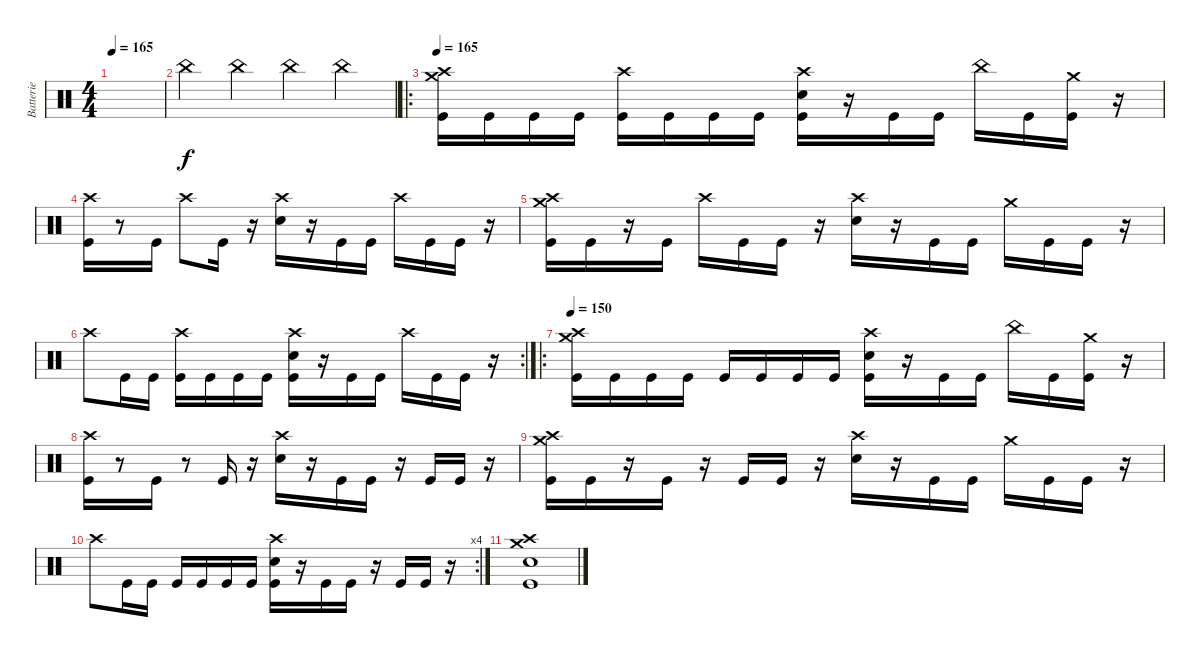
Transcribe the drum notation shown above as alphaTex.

\track ("Batterie" "Batterie") {instrument percussion}
\staff {score}
\articulation defaults
\ts (4 4)
\tempo 165
\clef neutral
\ks c
|
"China (hit)".4 "China (hit)".4 "China (hit)".4 "China (hit)".4 |
\ro
\tempo 165
("Crash high (hit)" "Crash medium (hit)" "Kick (hit)").16 "Kick (hit)".16 "Kick (hit)".16 "Kick (hit)".16 ("Crash high (hit)" "Kick (hit)").16 "Kick (hit)".16 "Kick (hit)".16 "Kick (hit)".16 ("Crash high (hit)" "Electric Snare (hit)" "Kick (hit)").16 r.16 "Kick (hit)".16 "Kick (hit)".16 "China (hit)".16 "Kick (hit)".16 ("Crash medium (hit)" "Kick (hit)").16 r.16 |
("Crash high (hit)" "Kick (hit)").16 r.8 "Kick (hit)".16 "Crash high (hit)".8 "Kick (hit)".16 r.16 ("Crash high (hit)" "Electric Snare (hit)").16 r.16 "Kick (hit)".16 "Kick (hit)".16 "Crash high (hit)".16 "Kick (hit)".16 "Kick (hit)".16 r.16 |
("Crash high (hit)" "Crash medium (hit)" "Kick (hit)").16 "Kick (hit)".16 r.16 "Kick (hit)".16 "Crash high (hit)".16 "Kick (hit)".16 "Kick (hit)".16 r.16 ("Crash high (hit)" "Electric Snare (hit)").16 r.16 "Kick (hit)".16 "Kick (hit)".16 "Crash medium (hit)".16 "Kick (hit)".16 "Kick (hit)".16 r.16 |
\rc 2 "Crash high (hit)".8 "Kick (hit)".16 "Kick (hit)".16
("Crash high (hit)" "Kick (hit)").16 "Kick (hit)".16 "Kick (hit)".16 "Kick (hit)".16 ("Crash high (hit)" "Electric Snare (hit)" "Kick (hit)").16 r.16 "Kick (hit)".16 "Kick (hit)".16 "Crash high (hit)".16 "Kick (hit)".16 "Kick (hit)".16 r.16 |
\ro
\tempo 150
("Crash high (hit)" "Crash medium (hit)" "Kick (hit)").16 "Kick (hit)".16 "Kick (hit)".16 "Kick (hit)".16 "Kick (hit)".16 "Kick (hit)".16 "Kick (hit)".16 "Kick (hit)".16 ("Crash high (hit)" "Electric Snare (hit)" "Kick (hit)").16 r.16 "Kick (hit)".16 "Kick (hit)".16 "China (hit)".16 "Kick (hit)".16 ("Crash medium (hit)" "Kick (hit)").16 r.16 |
("Crash high (hit)" "Kick (hit)").16 r.8 "Kick (hit)".16 r.8 "Kick (hit)".16 r.16 ("Crash high (hit)" "Electric Snare (hit)").16 r.16 "Kick (hit)".16 "Kick (hit)".16 r.16 "Kick (hit)".16 "Kick (hit)".16 r.16 |
("Crash high (hit)" "Crash medium (hit)" "Kick (hit)").16 "Kick (hit)".16 r.16 "Kick (hit)".16 r.16 "Kick (hit)".16 "Kick (hit)".16 r.16 ("Crash high (hit)" "Electric Snare (hit)").16 r.16 "Kick (hit)".16 "Kick (hit)".16 "Crash medium (hit)".16 "Kick (hit)".16 "Kick (hit)".16 r.16 |
\rc 4 "Crash high (hit)".8 "Kick (hit)".16 "Kick (hit)".16 "Kick (hit)".16 "Kick (hit)".16 "Kick (hit)".16 "Kick (hit)".16
("Crash high (hit)" "Electric Snare (hit)" "Kick (hit)").16 r.16 "Kick (hit)".16 "Kick (hit)".16 r.16 "Kick (hit)".16 "Kick (hit)".16 r.16 |
("Crash medium (hit)" "Crash high (hit)" "Electric Snare (hit)" "Kick (hit)").1
